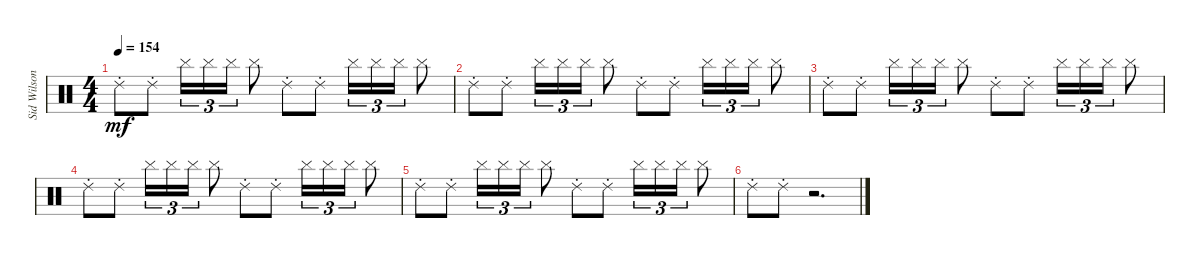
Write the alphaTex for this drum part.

\track ("Sid Wilson" "Sid Wilson") {instrument percussion}
\staff {score}
\articulation defaults
\ts (4 4)
\tempo 154
\clef neutral
\ks c "Ride (choke) 2".8{dy mf} "Ride (choke) 2".8 "Cymbal (hit)".16{tu (3 2)} "Cymbal (hit)".16{tu (3 2)} "Cymbal (hit)".16{tu (3 2)} "Cymbal (hit)".8 "Ride (choke) 2".8 "Ride (choke) 2".8 "Cymbal (hit)".16{tu (3 2)} "Cymbal (hit)".16{tu (3 2)} "Cymbal (hit)".16{tu (3 2)} "Cymbal (hit)".8
|
"Ride (choke) 2".8 "Ride (choke) 2".8 "Cymbal (hit)".16{tu (3 2)} "Cymbal (hit)".16{tu (3 2)} "Cymbal (hit)".16{tu (3 2)} "Cymbal (hit)".8 "Ride (choke) 2".8 "Ride (choke) 2".8 "Cymbal (hit)".16{tu (3 2)} "Cymbal (hit)".16{tu (3 2)} "Cymbal (hit)".16{tu (3 2)} "Cymbal (hit)".8 |
"Ride (choke) 2".8 "Ride (choke) 2".8 "Cymbal (hit)".16{tu (3 2)} "Cymbal (hit)".16{tu (3 2)} "Cymbal (hit)".16{tu (3 2)} "Cymbal (hit)".8 "Ride (choke) 2".8 "Ride (choke) 2".8 "Cymbal (hit)".16{tu (3 2)} "Cymbal (hit)".16{tu (3 2)} "Cymbal (hit)".16{tu (3 2)} "Cymbal (hit)".8 |
"Ride (choke) 2".8 "Ride (choke) 2".8 "Cymbal (hit)".16{tu (3 2)} "Cymbal (hit)".16{tu (3 2)} "Cymbal (hit)".16{tu (3 2)} "Cymbal (hit)".8 "Ride (choke) 2".8 "Ride (choke) 2".8 "Cymbal (hit)".16{tu (3 2)} "Cymbal (hit)".16{tu (3 2)} "Cymbal (hit)".16{tu (3 2)} "Cymbal (hit)".8 |
"Ride (choke) 2".8 "Ride (choke) 2".8 "Cymbal (hit)".16{tu (3 2)} "Cymbal (hit)".16{tu (3 2)} "Cymbal (hit)".16{tu (3 2)} "Cymbal (hit)".8 "Ride (choke) 2".8 "Ride (choke) 2".8 "Cymbal (hit)".16{tu (3 2)} "Cymbal (hit)".16{tu (3 2)} "Cymbal (hit)".16{tu (3 2)} "Cymbal (hit)".8 |
"Ride (choke) 2".8 "Ride (choke) 2".8 r.2{d}
